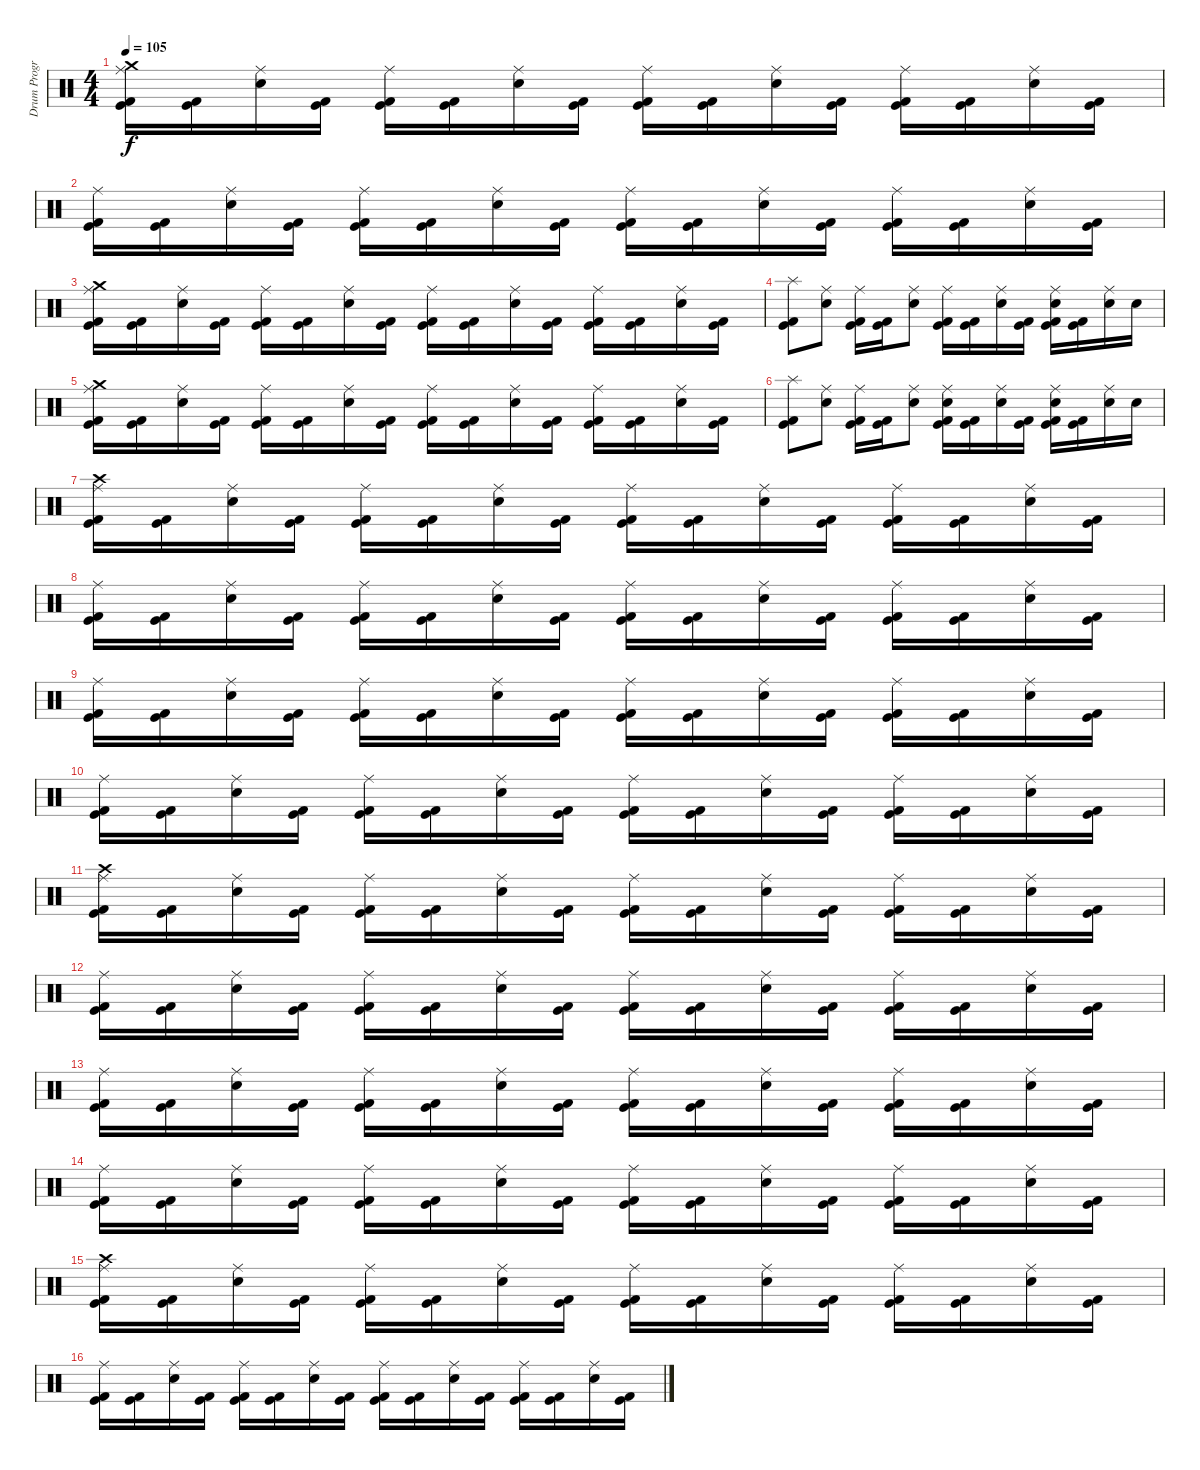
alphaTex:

\track ("Drum Program - BG" "Drum Progr") {instrument percussion}
\staff {score}
\articulation defaults
\ts (4 4)
\tempo 105
\clef neutral
\ks c
("Kick (hit)" "Kick (hit) 2" "Crash medium (hit)" "Ride (middle)").16{dy f} ("Kick (hit)" "Kick (hit) 2").16 ("Snare (hit) 2" "Ride (middle)").16 ("Kick (hit)" "Kick (hit) 2").16 ("Kick (hit)" "Kick (hit) 2" "Ride (middle)").16 ("Kick (hit)" "Kick (hit) 2").16 ("Snare (hit) 2" "Ride (middle)").16 ("Kick (hit)" "Kick (hit) 2").16 ("Kick (hit)" "Kick (hit) 2" "Ride (middle)").16 ("Kick (hit)" "Kick (hit) 2").16 ("Snare (hit) 2" "Ride (middle)").16 ("Kick (hit)" "Kick (hit) 2").16 ("Kick (hit)" "Kick (hit) 2" "Ride (middle)").16 ("Kick (hit)" "Kick (hit) 2").16 ("Snare (hit) 2" "Ride (middle)").16 ("Kick (hit)" "Kick (hit) 2").16 |
("Kick (hit)" "Kick (hit) 2" "Ride (middle)").16 ("Kick (hit)" "Kick (hit) 2").16 ("Snare (hit) 2" "Ride (middle)").16 ("Kick (hit)" "Kick (hit) 2").16 ("Kick (hit)" "Kick (hit) 2" "Ride (middle)").16 ("Kick (hit)" "Kick (hit) 2").16 ("Snare (hit) 2" "Ride (middle)").16 ("Kick (hit)" "Kick (hit) 2").16 ("Kick (hit)" "Kick (hit) 2" "Ride (middle)").16 ("Kick (hit)" "Kick (hit) 2").16 ("Snare (hit) 2" "Ride (middle)").16 ("Kick (hit)" "Kick (hit) 2").16 ("Kick (hit)" "Kick (hit) 2" "Ride (middle)").16 ("Kick (hit)" "Kick (hit) 2").16 ("Snare (hit) 2" "Ride (middle)").16 ("Kick (hit)" "Kick (hit) 2").16 |
("Kick (hit)" "Kick (hit) 2" "Crash medium (hit)" "Ride (middle)").16 ("Kick (hit)" "Kick (hit) 2").16 ("Snare (hit) 2" "Ride (middle)").16 ("Kick (hit)" "Kick (hit) 2").16 ("Kick (hit)" "Kick (hit) 2" "Ride (middle)").16 ("Kick (hit)" "Kick (hit) 2").16 ("Snare (hit) 2" "Ride (middle)").16 ("Kick (hit)" "Kick (hit) 2").16 ("Kick (hit)" "Kick (hit) 2" "Ride (middle)").16 ("Kick (hit)" "Kick (hit) 2").16 ("Snare (hit) 2" "Ride (middle)").16 ("Kick (hit)" "Kick (hit) 2").16 ("Kick (hit)" "Kick (hit) 2" "Ride (middle)").16 ("Kick (hit)" "Kick (hit) 2").16 ("Snare (hit) 2" "Ride (middle)").16 ("Kick (hit)" "Kick (hit) 2").16 |
("Kick (hit)" "Kick (hit) 2" "Splash (hit)").8 ("Snare (hit) 2" "Ride (middle)").8 ("Kick (hit)" "Kick (hit) 2" "Ride (middle)").16 ("Kick (hit)" "Kick (hit) 2").16 ("Snare (hit) 2" "Ride (middle)").8 ("Kick (hit)" "Kick (hit) 2" "Ride (middle)").16 ("Kick (hit)" "Kick (hit) 2").16 ("Electric Snare (hit)" "Ride (middle)").16 ("Kick (hit)" "Kick (hit) 2").16 ("Kick (hit)" "Kick (hit) 2" "Electric Snare (hit)" "Ride (middle)").16 ("Kick (hit)" "Kick (hit) 2").16 ("Electric Snare (hit)" "Ride (middle)").16 "Electric Snare (hit)".16 |
("Kick (hit)" "Kick (hit) 2" "Crash medium (hit)" "Ride (middle)").16 ("Kick (hit)" "Kick (hit) 2").16 ("Snare (hit) 2" "Ride (middle)").16 ("Kick (hit)" "Kick (hit) 2").16 ("Kick (hit)" "Kick (hit) 2" "Ride (middle)").16 ("Kick (hit)" "Kick (hit) 2").16 ("Snare (hit) 2" "Ride (middle)").16 ("Kick (hit)" "Kick (hit) 2").16 ("Kick (hit)" "Kick (hit) 2" "Ride (middle)").16 ("Kick (hit)" "Kick (hit) 2").16 ("Snare (hit) 2" "Ride (middle)").16 ("Kick (hit)" "Kick (hit) 2").16 ("Kick (hit)" "Kick (hit) 2" "Ride (middle)").16 ("Kick (hit)" "Kick (hit) 2").16 ("Snare (hit) 2" "Ride (middle)").16 ("Kick (hit)" "Kick (hit) 2").16 |
("Kick (hit)" "Kick (hit) 2" "Splash (hit)").8 ("Snare (hit) 2" "Ride (middle)").8 ("Kick (hit)" "Kick (hit) 2" "Ride (middle)").16 ("Kick (hit)" "Kick (hit) 2").16 ("Snare (hit) 2" "Ride (middle)").8 ("Kick (hit)" "Kick (hit) 2" "Snare (hit) 2" "Ride (middle)").16 ("Kick (hit)" "Kick (hit) 2").16 ("Electric Snare (hit)" "Ride (middle)").16 ("Kick (hit)" "Kick (hit) 2").16 ("Kick (hit)" "Kick (hit) 2" "Electric Snare (hit)" "Ride (middle)").16 ("Kick (hit)" "Kick (hit) 2").16 ("Electric Snare (hit)" "Ride (middle)").16 "Electric Snare (hit)".16 |
("Kick (hit)" "Kick (hit) 2" "Crash high (hit)" "Ride (middle)").16 ("Kick (hit)" "Kick (hit) 2").16 ("Snare (hit) 2" "Ride (middle)").16 ("Kick (hit)" "Kick (hit) 2").16 ("Kick (hit)" "Kick (hit) 2" "Ride (middle)").16 ("Kick (hit)" "Kick (hit) 2").16 ("Snare (hit) 2" "Ride (middle)").16 ("Kick (hit)" "Kick (hit) 2").16 ("Kick (hit)" "Kick (hit) 2" "Ride (middle)").16 ("Kick (hit)" "Kick (hit) 2").16 ("Snare (hit) 2" "Ride (middle)").16 ("Kick (hit)" "Kick (hit) 2").16 ("Kick (hit)" "Kick (hit) 2" "Ride (middle)").16 ("Kick (hit)" "Kick (hit) 2").16 ("Snare (hit) 2" "Ride (middle)").16 ("Kick (hit)" "Kick (hit) 2").16 |
("Kick (hit)" "Kick (hit) 2" "Ride (middle)").16 ("Kick (hit)" "Kick (hit) 2").16 ("Snare (hit) 2" "Ride (middle)").16 ("Kick (hit)" "Kick (hit) 2").16 ("Kick (hit)" "Kick (hit) 2" "Ride (middle)").16 ("Kick (hit)" "Kick (hit) 2").16 ("Snare (hit) 2" "Ride (middle)").16 ("Kick (hit)" "Kick (hit) 2").16 ("Kick (hit)" "Kick (hit) 2" "Ride (middle)").16 ("Kick (hit)" "Kick (hit) 2").16 ("Snare (hit) 2" "Ride (middle)").16 ("Kick (hit)" "Kick (hit) 2").16 ("Kick (hit)" "Kick (hit) 2" "Ride (middle)").16 ("Kick (hit)" "Kick (hit) 2").16 ("Snare (hit) 2" "Ride (middle)").16 ("Kick (hit)" "Kick (hit) 2").16 |
("Kick (hit)" "Kick (hit) 2" "Ride (middle)").16 ("Kick (hit)" "Kick (hit) 2").16 ("Snare (hit) 2" "Ride (middle)").16 ("Kick (hit)" "Kick (hit) 2").16 ("Kick (hit)" "Kick (hit) 2" "Ride (middle)").16 ("Kick (hit)" "Kick (hit) 2").16 ("Snare (hit) 2" "Ride (middle)").16 ("Kick (hit)" "Kick (hit) 2").16 ("Kick (hit)" "Kick (hit) 2" "Ride (middle)").16 ("Kick (hit)" "Kick (hit) 2").16 ("Snare (hit) 2" "Ride (middle)").16 ("Kick (hit)" "Kick (hit) 2").16 ("Kick (hit)" "Kick (hit) 2" "Ride (middle)").16 ("Kick (hit)" "Kick (hit) 2").16 ("Snare (hit) 2" "Ride (middle)").16 ("Kick (hit)" "Kick (hit) 2").16 |
("Kick (hit)" "Kick (hit) 2" "Ride (middle)").16 ("Kick (hit)" "Kick (hit) 2").16 ("Snare (hit) 2" "Ride (middle)").16 ("Kick (hit)" "Kick (hit) 2").16 ("Kick (hit)" "Kick (hit) 2" "Ride (middle)").16 ("Kick (hit)" "Kick (hit) 2").16 ("Snare (hit) 2" "Ride (middle)").16 ("Kick (hit)" "Kick (hit) 2").16 ("Kick (hit)" "Kick (hit) 2" "Ride (middle)").16 ("Kick (hit)" "Kick (hit) 2").16 ("Snare (hit) 2" "Ride (middle)").16 ("Kick (hit)" "Kick (hit) 2").16 ("Kick (hit)" "Kick (hit) 2" "Ride (middle)").16 ("Kick (hit)" "Kick (hit) 2").16 ("Snare (hit) 2" "Ride (middle)").16 ("Kick (hit)" "Kick (hit) 2").16 |
("Kick (hit)" "Kick (hit) 2" "Crash high (hit)" "Ride (middle)").16 ("Kick (hit)" "Kick (hit) 2").16 ("Snare (hit) 2" "Ride (middle)").16 ("Kick (hit)" "Kick (hit) 2").16 ("Kick (hit)" "Kick (hit) 2" "Ride (middle)").16 ("Kick (hit)" "Kick (hit) 2").16 ("Snare (hit) 2" "Ride (middle)").16 ("Kick (hit)" "Kick (hit) 2").16 ("Kick (hit)" "Kick (hit) 2" "Ride (middle)").16 ("Kick (hit)" "Kick (hit) 2").16 ("Snare (hit) 2" "Ride (middle)").16 ("Kick (hit)" "Kick (hit) 2").16 ("Kick (hit)" "Kick (hit) 2" "Ride (middle)").16 ("Kick (hit)" "Kick (hit) 2").16 ("Snare (hit) 2" "Ride (middle)").16 ("Kick (hit)" "Kick (hit) 2").16 |
("Kick (hit)" "Kick (hit) 2" "Ride (middle)").16 ("Kick (hit)" "Kick (hit) 2").16 ("Snare (hit) 2" "Ride (middle)").16 ("Kick (hit)" "Kick (hit) 2").16 ("Kick (hit)" "Kick (hit) 2" "Ride (middle)").16 ("Kick (hit)" "Kick (hit) 2").16 ("Snare (hit) 2" "Ride (middle)").16 ("Kick (hit)" "Kick (hit) 2").16 ("Kick (hit)" "Kick (hit) 2" "Ride (middle)").16 ("Kick (hit)" "Kick (hit) 2").16 ("Snare (hit) 2" "Ride (middle)").16 ("Kick (hit)" "Kick (hit) 2").16 ("Kick (hit)" "Kick (hit) 2" "Ride (middle)").16 ("Kick (hit)" "Kick (hit) 2").16 ("Snare (hit) 2" "Ride (middle)").16 ("Kick (hit)" "Kick (hit) 2").16 |
("Kick (hit)" "Kick (hit) 2" "Ride (middle)").16 ("Kick (hit)" "Kick (hit) 2").16 ("Snare (hit) 2" "Ride (middle)").16 ("Kick (hit)" "Kick (hit) 2").16 ("Kick (hit)" "Kick (hit) 2" "Ride (middle)").16 ("Kick (hit)" "Kick (hit) 2").16 ("Snare (hit) 2" "Ride (middle)").16 ("Kick (hit)" "Kick (hit) 2").16 ("Kick (hit)" "Kick (hit) 2" "Ride (middle)").16 ("Kick (hit)" "Kick (hit) 2").16 ("Snare (hit) 2" "Ride (middle)").16 ("Kick (hit)" "Kick (hit) 2").16 ("Kick (hit)" "Kick (hit) 2" "Ride (middle)").16 ("Kick (hit)" "Kick (hit) 2").16 ("Snare (hit) 2" "Ride (middle)").16 ("Kick (hit)" "Kick (hit) 2").16 |
("Kick (hit)" "Kick (hit) 2" "Ride (middle)").16 ("Kick (hit)" "Kick (hit) 2").16 ("Snare (hit) 2" "Ride (middle)").16 ("Kick (hit)" "Kick (hit) 2").16 ("Kick (hit)" "Kick (hit) 2" "Ride (middle)").16 ("Kick (hit)" "Kick (hit) 2").16 ("Snare (hit) 2" "Ride (middle)").16 ("Kick (hit)" "Kick (hit) 2").16 ("Kick (hit)" "Kick (hit) 2" "Ride (middle)").16 ("Kick (hit)" "Kick (hit) 2").16 ("Snare (hit) 2" "Ride (middle)").16 ("Kick (hit)" "Kick (hit) 2").16 ("Kick (hit)" "Kick (hit) 2" "Ride (middle)").16 ("Kick (hit)" "Kick (hit) 2").16 ("Snare (hit) 2" "Ride (middle)").16 ("Kick (hit)" "Kick (hit) 2").16 |
("Kick (hit)" "Kick (hit) 2" "Crash high (hit)" "Ride (middle)").16 ("Kick (hit)" "Kick (hit) 2").16 ("Snare (hit) 2" "Ride (middle)").16 ("Kick (hit)" "Kick (hit) 2").16 ("Kick (hit)" "Kick (hit) 2" "Ride (middle)").16 ("Kick (hit)" "Kick (hit) 2").16 ("Snare (hit) 2" "Ride (middle)").16 ("Kick (hit)" "Kick (hit) 2").16 ("Kick (hit)" "Kick (hit) 2" "Ride (middle)").16 ("Kick (hit)" "Kick (hit) 2").16 ("Snare (hit) 2" "Ride (middle)").16 ("Kick (hit)" "Kick (hit) 2").16 ("Kick (hit)" "Kick (hit) 2" "Ride (middle)").16 ("Kick (hit)" "Kick (hit) 2").16 ("Snare (hit) 2" "Ride (middle)").16 ("Kick (hit)" "Kick (hit) 2").16 |
("Kick (hit)" "Kick (hit) 2" "Ride (middle)").16 ("Kick (hit)" "Kick (hit) 2").16 ("Snare (hit) 2" "Ride (middle)").16 ("Kick (hit)" "Kick (hit) 2").16 ("Kick (hit)" "Kick (hit) 2" "Ride (middle)").16 ("Kick (hit)" "Kick (hit) 2").16 ("Snare (hit) 2" "Ride (middle)").16 ("Kick (hit)" "Kick (hit) 2").16 ("Kick (hit)" "Kick (hit) 2" "Ride (middle)").16 ("Kick (hit)" "Kick (hit) 2").16 ("Snare (hit) 2" "Ride (middle)").16 ("Kick (hit)" "Kick (hit) 2").16 ("Kick (hit)" "Kick (hit) 2" "Ride (middle)").16 ("Kick (hit)" "Kick (hit) 2").16 ("Snare (hit) 2" "Ride (middle)").16 ("Kick (hit)" "Kick (hit) 2").16
